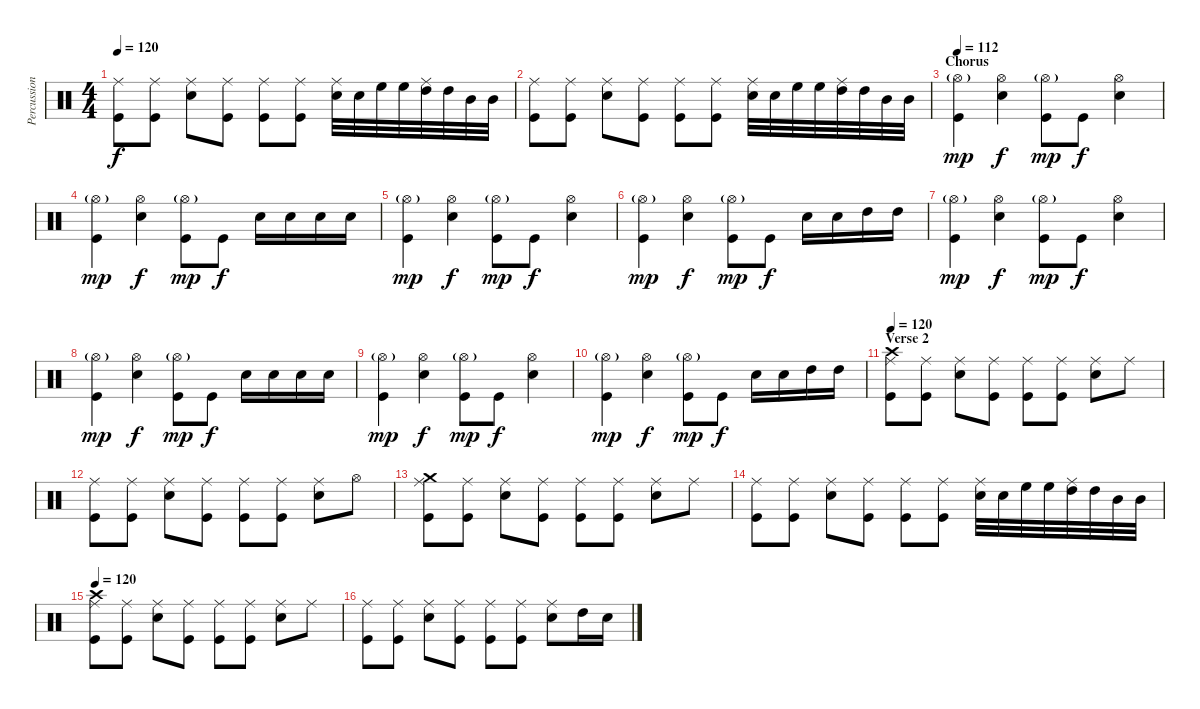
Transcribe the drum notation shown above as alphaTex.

\track ("Percussion" "Percussion") {instrument percussion}
\staff {score}
\articulation defaults
\ts (4 4)
\tempo 120
\clef neutral
\ks c
("Ride (middle)" "Kick (hit)").8{dy f} ("Ride (middle)" "Kick (hit)").8 ("Ride (middle)" "Snare (hit) 2").8 ("Ride (middle)" "Kick (hit)").8 ("Ride (middle)" "Kick (hit)").8 ("Ride (middle)" "Kick (hit)").8 ("Ride (middle)" "Snare (hit) 2").32 "Snare (hit) 2".32 "High Floor Tom (hit)".32 "High Floor Tom (hit)".32 ("Ride (middle)" "High Tom (hit)").32 "High Tom (hit)".32 "Mid Tom (hit)".32 "Mid Tom (hit)".32 |
("Ride (middle)" "Kick (hit)").8 ("Ride (middle)" "Kick (hit)").8 ("Ride (middle)" "Snare (hit) 2").8 ("Ride (middle)" "Kick (hit)").8 ("Ride (middle)" "Kick (hit)").8 ("Ride (middle)" "Kick (hit)").8 ("Ride (middle)" "Snare (hit) 2").32 "Snare (hit) 2".32 "High Floor Tom (hit)".32 "High Floor Tom (hit)".32 ("Ride (middle)" "High Tom (hit)").32 "High Tom (hit)".32 "Mid Tom (hit)".32 "Mid Tom (hit)".32 |
\section ("" "Chorus")
\tempo 112
("Hi-Hat (open)"{g} "Kick (hit)").4{dy mp} ("Hi-Hat (open)" "Snare (hit) 2").4{dy f} ("Hi-Hat (open)"{g} "Kick (hit)").8{dy mp} "Kick (hit)".8{dy f} ("Hi-Hat (open)" "Snare (hit) 2").4 |
("Hi-Hat (open)"{g} "Kick (hit)").4{dy mp} ("Hi-Hat (open)" "Snare (hit) 2").4{dy f} ("Hi-Hat (open)"{g} "Kick (hit)").8{dy mp} "Kick (hit)".8{dy f} "Snare (hit) 2".16 "Snare (hit) 2".16 "Snare (hit) 2".16 "Snare (hit) 2".16 |
("Hi-Hat (open)"{g} "Kick (hit)").4{dy mp} ("Hi-Hat (open)" "Snare (hit) 2").4{dy f} ("Hi-Hat (open)"{g} "Kick (hit)").8{dy mp} "Kick (hit)".8{dy f} ("Hi-Hat (open)" "Snare (hit) 2").4 |
("Hi-Hat (open)"{g} "Kick (hit)").4{dy mp} ("Hi-Hat (open)" "Snare (hit) 2").4{dy f} ("Hi-Hat (open)"{g} "Kick (hit)").8{dy mp} "Kick (hit)".8{dy f} "Snare (hit) 2".16 "Snare (hit) 2".16 "High Tom (hit)".16 "High Tom (hit)".16 |
("Hi-Hat (open)"{g} "Kick (hit)").4{dy mp} ("Hi-Hat (open)" "Snare (hit) 2").4{dy f} ("Hi-Hat (open)"{g} "Kick (hit)").8{dy mp} "Kick (hit)".8{dy f} ("Hi-Hat (open)" "Snare (hit) 2").4 |
("Hi-Hat (open)"{g} "Kick (hit)").4{dy mp} ("Hi-Hat (open)" "Snare (hit) 2").4{dy f} ("Hi-Hat (open)"{g} "Kick (hit)").8{dy mp} "Kick (hit)".8{dy f} "Snare (hit) 2".16 "Snare (hit) 2".16 "Snare (hit) 2".16 "Snare (hit) 2".16 |
("Hi-Hat (open)"{g} "Kick (hit)").4{dy mp} ("Hi-Hat (open)" "Snare (hit) 2").4{dy f} ("Hi-Hat (open)"{g} "Kick (hit)").8{dy mp} "Kick (hit)".8{dy f} ("Hi-Hat (open)" "Snare (hit) 2").4 |
("Hi-Hat (open)"{g} "Kick (hit)").4{dy mp} ("Hi-Hat (open)" "Snare (hit) 2").4{dy f} ("Hi-Hat (open)"{g} "Kick (hit)").8{dy mp} "Kick (hit)".8{dy f} "Snare (hit) 2".16 "Snare (hit) 2".16 "High Tom (hit)".16 "High Tom (hit)".16 |
\section ("" "Verse 2")
\tempo 120
("Crash high (hit)" "Ride (middle)" "Kick (hit)").8 ("Ride (middle)" "Kick (hit)").8 ("Ride (middle)" "Snare (hit) 2").8 ("Ride (middle)" "Kick (hit)").8 ("Ride (middle)" "Kick (hit)").8 ("Ride (middle)" "Kick (hit)").8 ("Ride (middle)" "Snare (hit) 2").8 "Ride (middle)".8 |
("Ride (middle)" "Kick (hit)").8 ("Ride (middle)" "Kick (hit)").8 ("Ride (middle)" "Snare (hit) 2").8 ("Ride (middle)" "Kick (hit)").8 ("Ride (middle)" "Kick (hit)").8 ("Ride (middle)" "Kick (hit)").8 ("Ride (middle)" "Snare (hit) 2").8 "Hi-Hat (open)".8 |
("Crash medium (hit)" "Ride (middle)" "Kick (hit)").8 ("Ride (middle)" "Kick (hit)").8 ("Ride (middle)" "Snare (hit) 2").8 ("Ride (middle)" "Kick (hit)").8 ("Ride (middle)" "Kick (hit)").8 ("Ride (middle)" "Kick (hit)").8 ("Ride (middle)" "Snare (hit) 2").8 "Ride (middle)".8 |
("Ride (middle)" "Kick (hit)").8 ("Ride (middle)" "Kick (hit)").8 ("Ride (middle)" "Snare (hit) 2").8 ("Ride (middle)" "Kick (hit)").8 ("Ride (middle)" "Kick (hit)").8 ("Ride (middle)" "Kick (hit)").8 ("Ride (middle)" "Snare (hit) 2").32 "Snare (hit) 2".32 "High Floor Tom (hit)".32 "High Floor Tom (hit)".32 ("Ride (middle)" "High Tom (hit)").32 "High Tom (hit)".32 "Mid Tom (hit)".32 "Mid Tom (hit)".32 |
\tempo 120
("Crash high (hit)" "Ride (middle)" "Kick (hit)").8 ("Ride (middle)" "Kick (hit)").8 ("Ride (middle)" "Snare (hit) 2").8 ("Ride (middle)" "Kick (hit)").8 ("Ride (middle)" "Kick (hit)").8 ("Ride (middle)" "Kick (hit)").8 ("Ride (middle)" "Snare (hit) 2").8 "Ride (middle)".8 |
("Ride (middle)" "Kick (hit)").8 ("Ride (middle)" "Kick (hit)").8 ("Ride (middle)" "Snare (hit) 2").8 ("Ride (middle)" "Kick (hit)").8 ("Ride (middle)" "Kick (hit)").8 ("Ride (middle)" "Kick (hit)").8 ("Ride (middle)" "Snare (hit) 2").8 "High Tom (hit)".16 "Snare (hit) 2".16
